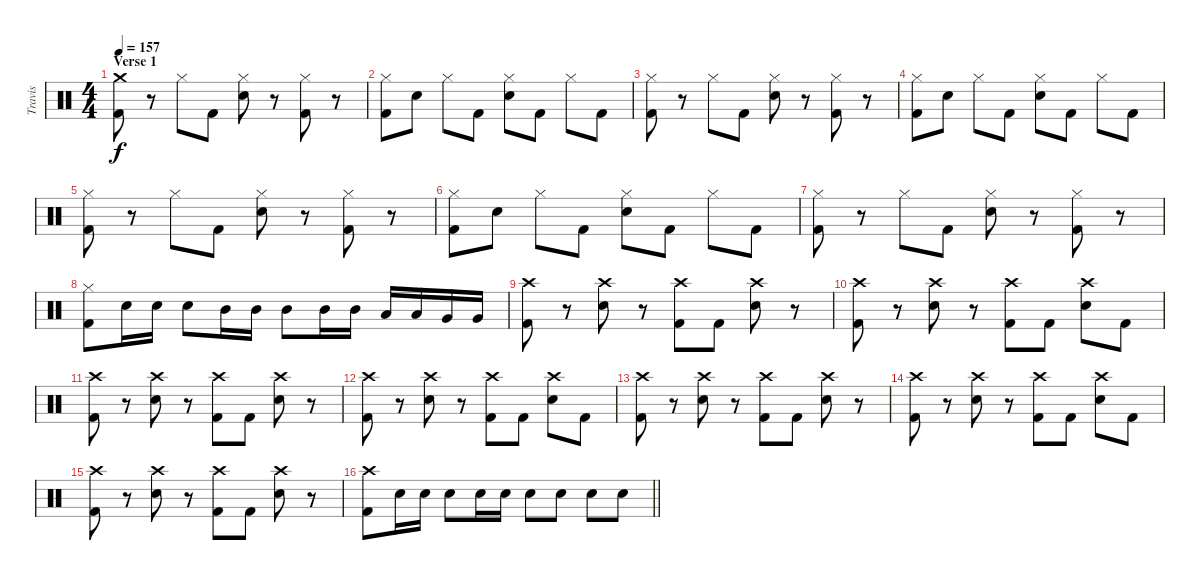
\track ("Travis" "Travis") {instrument percussion}
\staff {score}
\articulation defaults
\ts (4 4)
\section ("" "Verse 1")
\tempo 157
\clef neutral
\ks c
("Crash medium (hit)" "Kick (hit) 2").8{dy f} r.8 "Hi-Hat (closed)".8 "Kick (hit) 2".8 ("Hi-Hat (closed)" "Electric Snare (hit)").8 r.8 ("Hi-Hat (closed)" "Kick (hit) 2").8 r.8 |
("Hi-Hat (closed)" "Kick (hit) 2").8 "Electric Snare (hit)".8 "Hi-Hat (closed)".8 "Kick (hit) 2".8 ("Hi-Hat (closed)" "Electric Snare (hit)").8 "Kick (hit) 2".8 "Hi-Hat (closed)".8 "Kick (hit) 2".8 |
("Hi-Hat (closed)" "Kick (hit) 2").8 r.8 "Hi-Hat (closed)".8 "Kick (hit) 2".8 ("Hi-Hat (closed)" "Electric Snare (hit)").8 r.8 ("Hi-Hat (closed)" "Kick (hit) 2").8 r.8 |
("Hi-Hat (closed)" "Kick (hit) 2").8 "Electric Snare (hit)".8 "Hi-Hat (closed)".8 "Kick (hit) 2".8 ("Hi-Hat (closed)" "Electric Snare (hit)").8 "Kick (hit) 2".8 "Hi-Hat (closed)".8 "Kick (hit) 2".8 |
("Hi-Hat (closed)" "Kick (hit) 2").8 r.8 "Hi-Hat (closed)".8 "Kick (hit) 2".8 ("Hi-Hat (closed)" "Electric Snare (hit)").8 r.8 ("Hi-Hat (closed)" "Kick (hit) 2").8 r.8 |
("Hi-Hat (closed)" "Kick (hit) 2").8 "Electric Snare (hit)".8 "Hi-Hat (closed)".8 "Kick (hit) 2".8 ("Hi-Hat (closed)" "Electric Snare (hit)").8 "Kick (hit) 2".8 "Hi-Hat (closed)".8 "Kick (hit) 2".8 |
("Hi-Hat (closed)" "Kick (hit) 2").8 r.8 "Hi-Hat (closed)".8 "Kick (hit) 2".8 ("Hi-Hat (closed)" "Electric Snare (hit)").8 r.8 ("Hi-Hat (closed)" "Kick (hit) 2").8 r.8 |
("Hi-Hat (closed)" "Kick (hit) 2").8 "Electric Snare (hit)".16 "Electric Snare (hit)".16 "Electric Snare (hit)".8 "Mid Tom (hit)".16 "Mid Tom (hit)".16 "Mid Tom (hit)".8 "Mid Tom (hit)".16 "Mid Tom (hit)".16 "Low Tom (hit)".16 "Low Tom (hit)".16 "Very Low Tom (hit)".16 "Very Low Tom (hit)".16 |
("Crash high (hit)" "Kick (hit) 2").8 r.8 ("Crash high (hit)" "Electric Snare (hit)").8 r.8 ("Crash high (hit)" "Kick (hit) 2").8 "Kick (hit) 2".8 ("Crash high (hit)" "Electric Snare (hit)").8 r.8 |
("Crash high (hit)" "Kick (hit) 2").8 r.8 ("Crash high (hit)" "Electric Snare (hit)").8 r.8 ("Crash high (hit)" "Kick (hit) 2").8 "Kick (hit) 2".8 ("Crash high (hit)" "Electric Snare (hit)").8 "Kick (hit) 2".8 |
("Crash high (hit)" "Kick (hit) 2").8 r.8 ("Crash high (hit)" "Electric Snare (hit)").8 r.8 ("Crash high (hit)" "Kick (hit) 2").8 "Kick (hit) 2".8 ("Crash high (hit)" "Electric Snare (hit)").8 r.8 |
("Crash high (hit)" "Kick (hit) 2").8 r.8 ("Crash high (hit)" "Electric Snare (hit)").8 r.8 ("Crash high (hit)" "Kick (hit) 2").8 "Kick (hit) 2".8 ("Crash high (hit)" "Electric Snare (hit)").8 "Kick (hit) 2".8 |
("Crash high (hit)" "Kick (hit) 2").8 r.8 ("Crash high (hit)" "Electric Snare (hit)").8 r.8 ("Crash high (hit)" "Kick (hit) 2").8 "Kick (hit) 2".8 ("Crash high (hit)" "Electric Snare (hit)").8 r.8 |
("Crash high (hit)" "Kick (hit) 2").8 r.8 ("Crash high (hit)" "Electric Snare (hit)").8 r.8 ("Crash high (hit)" "Kick (hit) 2").8 "Kick (hit) 2".8 ("Crash high (hit)" "Electric Snare (hit)").8 "Kick (hit) 2".8 |
("Crash high (hit)" "Kick (hit) 2").8 r.8 ("Crash high (hit)" "Electric Snare (hit)").8 r.8 ("Crash high (hit)" "Kick (hit) 2").8 "Kick (hit) 2".8 ("Crash high (hit)" "Electric Snare (hit)").8 r.8 |
\barLineRight lightlight
("Crash high (hit)" "Kick (hit) 2").8 "Electric Snare (hit)".16 "Electric Snare (hit)".16 "Electric Snare (hit)".8 "Electric Snare (hit)".16 "Electric Snare (hit)".16 "Electric Snare (hit)".8 "Electric Snare (hit)".8 "Electric Snare (hit)".8 "Electric Snare (hit)".8
